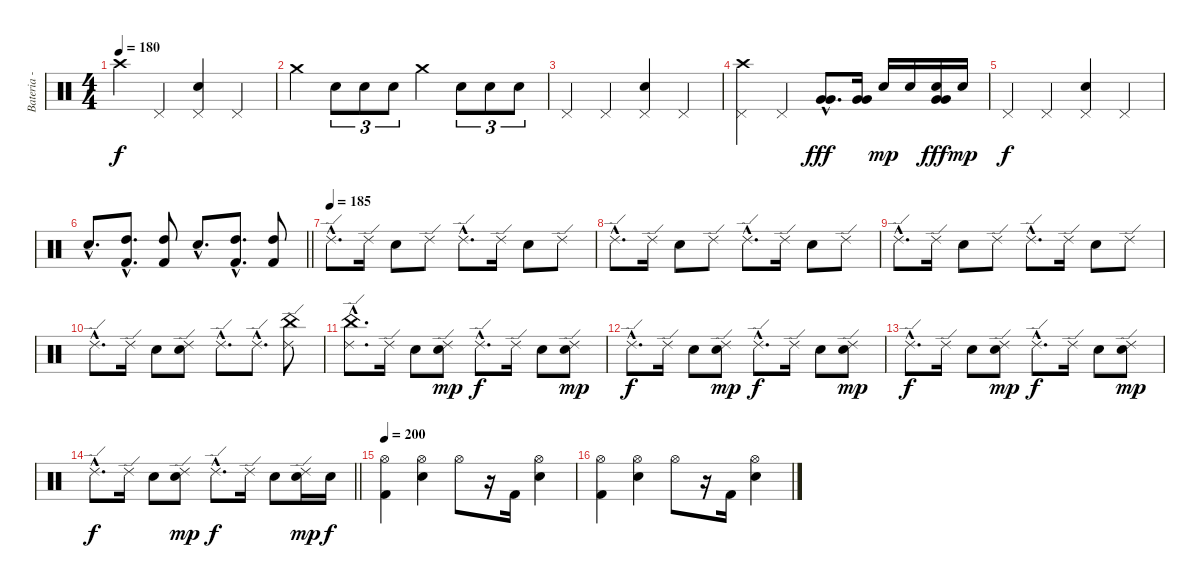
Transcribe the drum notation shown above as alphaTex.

\track ("Bateria - Larzon" "Bateria - ") {instrument percussion}
\staff {score}
\articulation defaults
\ts (4 4)
\tempo 180
\clef neutral
\ks c "Crash high (hit)".4{dy f} "Pedal Hi-Hat (hit)".4
("Electric Snare (hit)" "Pedal Hi-Hat (hit)").4 "Pedal Hi-Hat (hit)".4 |
"Crash medium (hit)".4 "Electric Snare (hit)".8{tu (3 2)} "Electric Snare (hit)".8{tu (3 2)} "Electric Snare (hit)".8{tu (3 2)} "Crash medium (hit)".4 "Electric Snare (hit)".8{tu (3 2)} "Electric Snare (hit)".8{tu (3 2)} "Electric Snare (hit)".8{tu (3 2)} |
"Pedal Hi-Hat (hit)".4 "Pedal Hi-Hat (hit)".4 ("Electric Snare (hit)" "Pedal Hi-Hat (hit)").4 "Pedal Hi-Hat (hit)".4 |
("Crash high (hit)" "Pedal Hi-Hat (hit)").4 "Pedal Hi-Hat (hit)".4 ("Very Low Tom (hit)"{hac} "Very Low Tom (hit)"{hac}).8{d dy fff} ("Very Low Tom (hit)" "Very Low Tom (hit)").16 "Electric Snare (hit)".16{dy mp} "Electric Snare (hit)".16 ("Electric Snare (hit)" "Very Low Tom (hit)" "Very Low Tom (hit)").16{dy fff} "Electric Snare (hit)".16{dy mp} |
"Pedal Hi-Hat (hit)".4{dy f} "Pedal Hi-Hat (hit)".4 ("Electric Snare (hit)" "Pedal Hi-Hat (hit)").4 "Pedal Hi-Hat (hit)".4 |
\barLineRight lightlight "Electric Snare (hit)"{hac}.8{d}
("Kick (hit) 2"{hac} "High Tom (hit)"{hac}).8{d} ("Kick (hit) 2" "High Tom (hit)").8 "Electric Snare (hit)"{hac}.8{d} ("Kick (hit) 2"{hac} "High Tom (hit)"{hac}).8{d} ("Kick (hit) 2" "High Tom (hit)").8 |
\tempo 203
\tempo (185)
"Ride (edge) 2"{hac}.8{d} "Ride (edge) 2".16 "Electric Snare (hit)".8 "Ride (edge) 2".8 "Ride (edge) 2"{hac}.8{d} "Ride (edge) 2".16 "Electric Snare (hit)".8 "Ride (edge) 2".8 |
"Ride (edge) 2"{hac}.8{d} "Ride (edge) 2".16 "Electric Snare (hit)".8 "Ride (edge) 2".8 "Ride (edge) 2"{hac}.8{d} "Ride (edge) 2".16 "Electric Snare (hit)".8 "Ride (edge) 2".8 |
"Ride (edge) 2"{hac}.8{d} "Ride (edge) 2".16 "Electric Snare (hit)".8 "Ride (edge) 2".8 "Ride (edge) 2"{hac}.8{d} "Ride (edge) 2".16 "Electric Snare (hit)".8 "Ride (edge) 2".8 |
"Ride (edge) 2"{hac}.8{d} "Ride (edge) 2".16 "Electric Snare (hit)".8 ("Electric Snare (hit)" "Ride (edge) 2").8 "Ride (edge) 2"{hac}.8{d} "Ride (edge) 2"{hac}.8{d} ("China (hit)" "Ride (edge) 2").8 |
("China (hit)"{hac} "Ride (edge) 2"{hac}).8{d} "Ride (edge) 2".16 "Electric Snare (hit)".8 ("Electric Snare (hit)" "Ride (edge) 2").8{dy mp} "Ride (edge) 2"{hac}.8{d dy f} "Ride (edge) 2".16 "Electric Snare (hit)".8 ("Electric Snare (hit)" "Ride (edge) 2").8{dy mp} |
"Ride (edge) 2"{hac}.8{d dy f} "Ride (edge) 2".16 "Electric Snare (hit)".8 ("Electric Snare (hit)" "Ride (edge) 2").8{dy mp} "Ride (edge) 2"{hac}.8{d dy f} "Ride (edge) 2".16 "Electric Snare (hit)".8 ("Electric Snare (hit)" "Ride (edge) 2").8{dy mp} |
"Ride (edge) 2"{hac}.8{d dy f} "Ride (edge) 2".16 "Electric Snare (hit)".8 ("Electric Snare (hit)" "Ride (edge) 2").8{dy mp} "Ride (edge) 2"{hac}.8{d dy f} "Ride (edge) 2".16 "Electric Snare (hit)".8 ("Electric Snare (hit)" "Ride (edge) 2").8{dy mp} |
\barLineRight lightlight "Ride (edge) 2"{hac}.8{d dy f} "Ride (edge) 2".16 "Electric Snare (hit)".8
("Electric Snare (hit)" "Ride (edge) 2").8{dy mp} "Ride (edge) 2"{hac}.8{d dy f} "Ride (edge) 2".16 "Electric Snare (hit)".8 ("Electric Snare (hit)" "Ride (edge) 2").16{dy mp} "Electric Snare (hit)".16{dy f} |
\tempo 200
("Kick (hit) 2" "Hi-Hat (open)").4 ("Electric Snare (hit)" "Hi-Hat (open)").4 "Hi-Hat (open)".8 r.16 "Kick (hit) 2".16 ("Electric Snare (hit)" "Hi-Hat (open)").4 |
("Kick (hit) 2" "Hi-Hat (open)").4 ("Electric Snare (hit)" "Hi-Hat (open)").4 "Hi-Hat (open)".8 r.16 "Kick (hit) 2".16 ("Electric Snare (hit)" "Hi-Hat (open)").4
